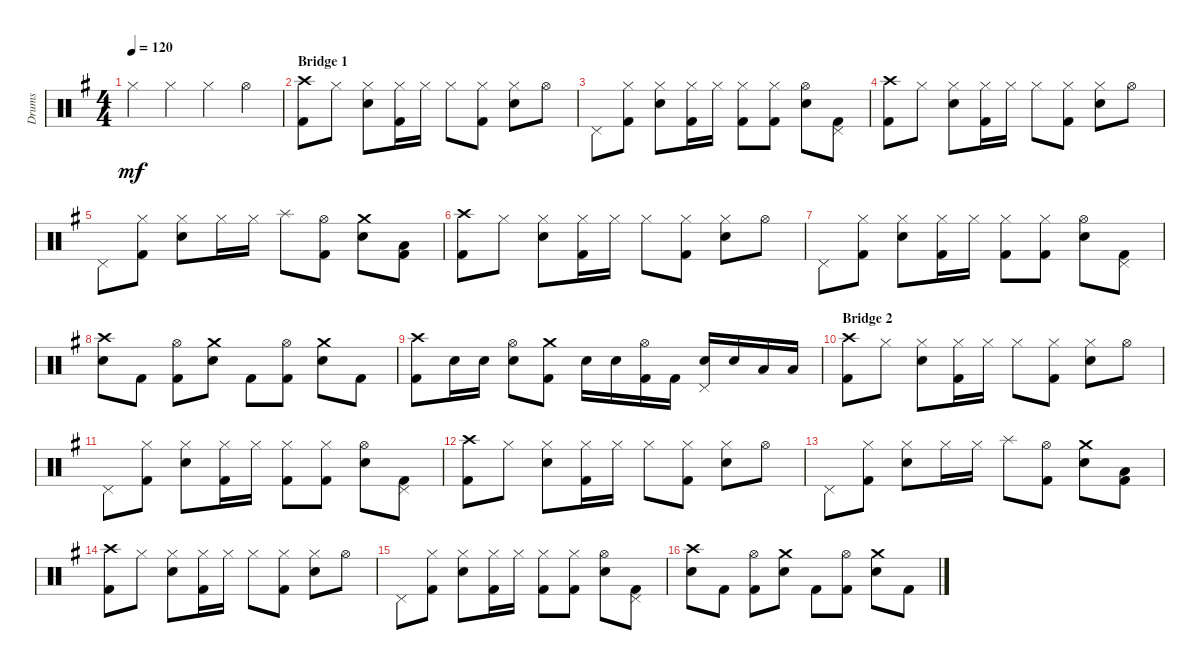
\track ("Drums" "Drums") {instrument percussion}
\staff {score}
\articulation defaults
\ts (4 4)
\tempo 120
\clef neutral
\ks g "Hi-Hat (closed)".4{dy mf} "Hi-Hat (closed)".4 "Hi-Hat (closed)".4 "Hi-Hat (open)".4
|
\section ("" "Bridge 1")
("Kick (hit) 2" "Crash high (hit)").8 "Hi-Hat (closed)".8 ("Snare (hit) 2" "Hi-Hat (closed)").8 ("Kick (hit) 2" "Hi-Hat (closed)").16 "Hi-Hat (closed)".16 "Hi-Hat (closed)".8 ("Kick (hit) 2" "Hi-Hat (closed)").8 ("Snare (hit) 2" "Hi-Hat (closed)").8 "Hi-Hat (open)".8 |
"Pedal Hi-Hat (hit)".8 ("Kick (hit) 2" "Hi-Hat (closed)").8 ("Snare (hit) 2" "Hi-Hat (closed)").8 ("Kick (hit) 2" "Hi-Hat (closed)").16 "Hi-Hat (closed)".16 ("Kick (hit) 2" "Hi-Hat (closed)").8 ("Kick (hit) 2" "Hi-Hat (closed)").8 ("Snare (hit) 2" "Hi-Hat (open)").8 ("Kick (hit) 2" "Pedal Hi-Hat (hit)").8 |
("Kick (hit) 2" "Crash high (hit)").8 "Hi-Hat (closed)".8 ("Snare (hit) 2" "Hi-Hat (closed)").8 ("Kick (hit) 2" "Hi-Hat (closed)").16 "Hi-Hat (closed)".16 "Hi-Hat (closed)".8 ("Kick (hit) 2" "Hi-Hat (closed)").8 ("Snare (hit) 2" "Hi-Hat (closed)").8 "Hi-Hat (open)".8 |
"Pedal Hi-Hat (hit)".8 ("Kick (hit) 2" "Hi-Hat (closed)").8 ("Snare (hit) 2" "Hi-Hat (closed)").8 "Hi-Hat (closed)".16 "Hi-Hat (closed)".16 "Splash (hit)".8 ("Kick (hit) 2" "Hi-Hat (open)").8 ("Snare (hit) 2" "Crash medium (hit)").8 ("Kick (hit) 2" "Low Tom (hit)").8 |
("Kick (hit) 2" "Crash high (hit)").8 "Hi-Hat (closed)".8 ("Snare (hit) 2" "Hi-Hat (closed)").8 ("Kick (hit) 2" "Hi-Hat (closed)").16 "Hi-Hat (closed)".16 "Hi-Hat (closed)".8 ("Kick (hit) 2" "Hi-Hat (closed)").8 ("Snare (hit) 2" "Hi-Hat (closed)").8 "Hi-Hat (open)".8 |
"Pedal Hi-Hat (hit)".8 ("Kick (hit) 2" "Hi-Hat (closed)").8 ("Snare (hit) 2" "Hi-Hat (closed)").8 ("Kick (hit) 2" "Hi-Hat (closed)").16 "Hi-Hat (closed)".16 ("Kick (hit) 2" "Hi-Hat (closed)").8 ("Kick (hit) 2" "Hi-Hat (closed)").8 ("Snare (hit) 2" "Hi-Hat (open)").8 ("Kick (hit) 2" "Pedal Hi-Hat (hit)").8 |
("Snare (hit) 2" "Crash high (hit)").8 "Kick (hit) 2".8 ("Kick (hit) 2" "Hi-Hat (open)").8 ("Snare (hit) 2" "Crash medium (hit)").8 "Kick (hit) 2".8 ("Kick (hit) 2" "Hi-Hat (open)").8 ("Snare (hit) 2" "Crash medium (hit)").8 "Kick (hit) 2".8 |
("Kick (hit) 2" "Crash high (hit)").8 "Snare (hit) 2".16 "Snare (hit) 2".16 ("Snare (hit) 2" "Hi-Hat (open)").8 ("Kick (hit) 2" "Crash medium (hit)").8 "Snare (hit) 2".16 "Snare (hit) 2".16 ("Kick (hit) 2" "Hi-Hat (open)").16 "Kick (hit) 2".16 ("Snare (hit) 2" "Pedal Hi-Hat (hit)").16 "Snare (hit) 2".16 "Low Tom (hit)".16 "Low Tom (hit)".16 |
\section ("" "Bridge 2")
("Kick (hit) 2" "Crash high (hit)").8 "Hi-Hat (closed)".8 ("Snare (hit) 2" "Hi-Hat (closed)").8 ("Kick (hit) 2" "Hi-Hat (closed)").16 "Hi-Hat (closed)".16 "Hi-Hat (closed)".8 ("Kick (hit) 2" "Hi-Hat (closed)").8 ("Snare (hit) 2" "Hi-Hat (closed)").8 "Hi-Hat (open)".8 |
"Pedal Hi-Hat (hit)".8 ("Kick (hit) 2" "Hi-Hat (closed)").8 ("Snare (hit) 2" "Hi-Hat (closed)").8 ("Kick (hit) 2" "Hi-Hat (closed)").16 "Hi-Hat (closed)".16 ("Kick (hit) 2" "Hi-Hat (closed)").8 ("Kick (hit) 2" "Hi-Hat (closed)").8 ("Snare (hit) 2" "Hi-Hat (open)").8 ("Kick (hit) 2" "Pedal Hi-Hat (hit)").8 |
("Kick (hit) 2" "Crash high (hit)").8 "Hi-Hat (closed)".8 ("Snare (hit) 2" "Hi-Hat (closed)").8 ("Kick (hit) 2" "Hi-Hat (closed)").16 "Hi-Hat (closed)".16 "Hi-Hat (closed)".8 ("Kick (hit) 2" "Hi-Hat (closed)").8 ("Snare (hit) 2" "Hi-Hat (closed)").8 "Hi-Hat (open)".8 |
"Pedal Hi-Hat (hit)".8 ("Kick (hit) 2" "Hi-Hat (closed)").8 ("Snare (hit) 2" "Hi-Hat (closed)").8 "Hi-Hat (closed)".16 "Hi-Hat (closed)".16 "Splash (hit)".8 ("Kick (hit) 2" "Hi-Hat (open)").8 ("Snare (hit) 2" "Crash medium (hit)").8 ("Kick (hit) 2" "Low Tom (hit)").8 |
("Kick (hit) 2" "Crash high (hit)").8 "Hi-Hat (closed)".8 ("Snare (hit) 2" "Hi-Hat (closed)").8 ("Kick (hit) 2" "Hi-Hat (closed)").16 "Hi-Hat (closed)".16 "Hi-Hat (closed)".8 ("Kick (hit) 2" "Hi-Hat (closed)").8 ("Snare (hit) 2" "Hi-Hat (closed)").8 "Hi-Hat (open)".8 |
"Pedal Hi-Hat (hit)".8 ("Kick (hit) 2" "Hi-Hat (closed)").8 ("Snare (hit) 2" "Hi-Hat (closed)").8 ("Kick (hit) 2" "Hi-Hat (closed)").16 "Hi-Hat (closed)".16 ("Kick (hit) 2" "Hi-Hat (closed)").8 ("Kick (hit) 2" "Hi-Hat (closed)").8 ("Snare (hit) 2" "Hi-Hat (open)").8 ("Kick (hit) 2" "Pedal Hi-Hat (hit)").8 |
("Snare (hit) 2" "Crash high (hit)").8 "Kick (hit) 2".8 ("Kick (hit) 2" "Hi-Hat (open)").8 ("Snare (hit) 2" "Crash medium (hit)").8 "Kick (hit) 2".8 ("Kick (hit) 2" "Hi-Hat (open)").8 ("Snare (hit) 2" "Crash medium (hit)").8 "Kick (hit) 2".8
